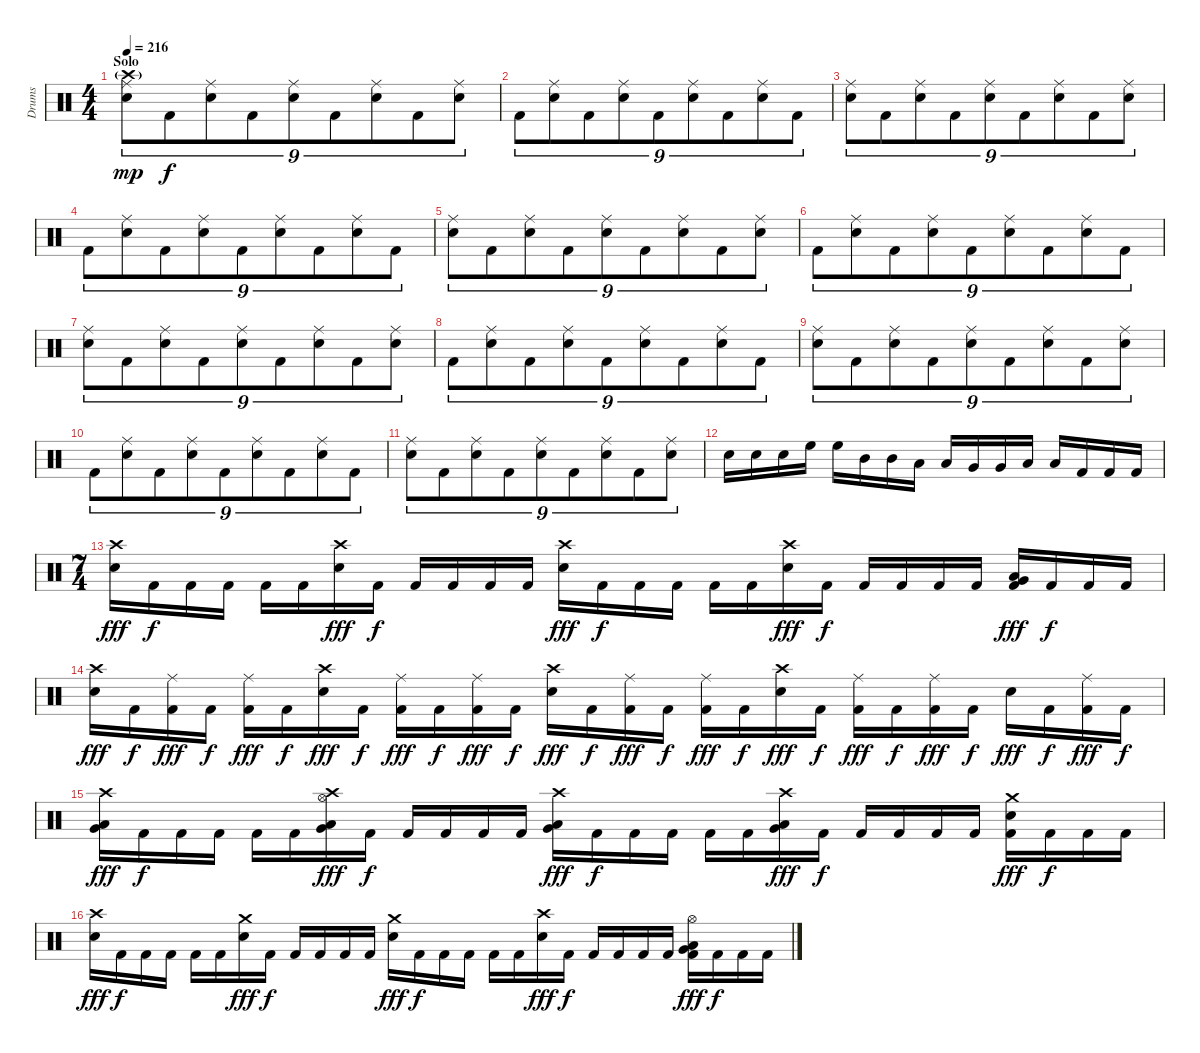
\track ("Drums" "Drums") {instrument percussion}
\staff {score}
\articulation defaults
\ts (4 4)
\section ("" "Solo")
\tempo 216
\clef neutral
\ks c
("Crash high (hit)"{g} "Ride (middle)" "Snare (hit) 2").8{tu (9 8) dy mp} "Kick (hit) 2".8{tu (9 8) dy f} ("Ride (middle)" "Snare (hit) 2").8{tu (9 8)} "Kick (hit) 2".8{tu (9 8)} ("Ride (middle)" "Snare (hit) 2").8{tu (9 8)} "Kick (hit) 2".8{tu (9 8)} ("Ride (middle)" "Snare (hit) 2").8{tu (9 8)} "Kick (hit) 2".8{tu (9 8)} ("Ride (middle)" "Snare (hit) 2").8{tu (9 8)} |
"Kick (hit) 2".8{tu (9 8)} ("Ride (middle)" "Snare (hit) 2").8{tu (9 8)} "Kick (hit) 2".8{tu (9 8)} ("Ride (middle)" "Snare (hit) 2").8{tu (9 8)} "Kick (hit) 2".8{tu (9 8)} ("Ride (middle)" "Snare (hit) 2").8{tu (9 8)} "Kick (hit) 2".8{tu (9 8)} ("Ride (middle)" "Snare (hit) 2").8{tu (9 8)} "Kick (hit) 2".8{tu (9 8)} |
("Ride (middle)" "Snare (hit) 2").8{tu (9 8)} "Kick (hit) 2".8{tu (9 8)} ("Ride (middle)" "Snare (hit) 2").8{tu (9 8)} "Kick (hit) 2".8{tu (9 8)} ("Ride (middle)" "Snare (hit) 2").8{tu (9 8)} "Kick (hit) 2".8{tu (9 8)} ("Ride (middle)" "Snare (hit) 2").8{tu (9 8)} "Kick (hit) 2".8{tu (9 8)} ("Ride (middle)" "Snare (hit) 2").8{tu (9 8)} |
"Kick (hit) 2".8{tu (9 8)} ("Ride (middle)" "Snare (hit) 2").8{tu (9 8)} "Kick (hit) 2".8{tu (9 8)} ("Ride (middle)" "Snare (hit) 2").8{tu (9 8)} "Kick (hit) 2".8{tu (9 8)} ("Ride (middle)" "Snare (hit) 2").8{tu (9 8)} "Kick (hit) 2".8{tu (9 8)} ("Ride (middle)" "Snare (hit) 2").8{tu (9 8)} "Kick (hit) 2".8{tu (9 8)} |
("Ride (middle)" "Snare (hit) 2").8{tu (9 8)} "Kick (hit) 2".8{tu (9 8)} ("Ride (middle)" "Snare (hit) 2").8{tu (9 8)} "Kick (hit) 2".8{tu (9 8)} ("Ride (middle)" "Snare (hit) 2").8{tu (9 8)} "Kick (hit) 2".8{tu (9 8)} ("Ride (middle)" "Snare (hit) 2").8{tu (9 8)} "Kick (hit) 2".8{tu (9 8)} ("Ride (middle)" "Snare (hit) 2").8{tu (9 8)} |
"Kick (hit) 2".8{tu (9 8)} ("Ride (middle)" "Snare (hit) 2").8{tu (9 8)} "Kick (hit) 2".8{tu (9 8)} ("Ride (middle)" "Snare (hit) 2").8{tu (9 8)} "Kick (hit) 2".8{tu (9 8)} ("Ride (middle)" "Snare (hit) 2").8{tu (9 8)} "Kick (hit) 2".8{tu (9 8)} ("Ride (middle)" "Snare (hit) 2").8{tu (9 8)} "Kick (hit) 2".8{tu (9 8)} |
("Ride (middle)" "Snare (hit) 2").8{tu (9 8)} "Kick (hit) 2".8{tu (9 8)} ("Ride (middle)" "Snare (hit) 2").8{tu (9 8)} "Kick (hit) 2".8{tu (9 8)} ("Ride (middle)" "Snare (hit) 2").8{tu (9 8)} "Kick (hit) 2".8{tu (9 8)} ("Ride (middle)" "Snare (hit) 2").8{tu (9 8)} "Kick (hit) 2".8{tu (9 8)} ("Ride (middle)" "Snare (hit) 2").8{tu (9 8)} |
"Kick (hit) 2".8{tu (9 8)} ("Ride (middle)" "Snare (hit) 2").8{tu (9 8)} "Kick (hit) 2".8{tu (9 8)} ("Ride (middle)" "Snare (hit) 2").8{tu (9 8)} "Kick (hit) 2".8{tu (9 8)} ("Ride (middle)" "Snare (hit) 2").8{tu (9 8)} "Kick (hit) 2".8{tu (9 8)} ("Ride (middle)" "Snare (hit) 2").8{tu (9 8)} "Kick (hit) 2".8{tu (9 8)} |
("Ride (middle)" "Snare (hit) 2").8{tu (9 8)} "Kick (hit) 2".8{tu (9 8)} ("Ride (middle)" "Snare (hit) 2").8{tu (9 8)} "Kick (hit) 2".8{tu (9 8)} ("Ride (middle)" "Snare (hit) 2").8{tu (9 8)} "Kick (hit) 2".8{tu (9 8)} ("Ride (middle)" "Snare (hit) 2").8{tu (9 8)} "Kick (hit) 2".8{tu (9 8)} ("Ride (middle)" "Snare (hit) 2").8{tu (9 8)} |
"Kick (hit) 2".8{tu (9 8)} ("Ride (middle)" "Snare (hit) 2").8{tu (9 8)} "Kick (hit) 2".8{tu (9 8)} ("Ride (middle)" "Snare (hit) 2").8{tu (9 8)} "Kick (hit) 2".8{tu (9 8)} ("Ride (middle)" "Snare (hit) 2").8{tu (9 8)} "Kick (hit) 2".8{tu (9 8)} ("Ride (middle)" "Snare (hit) 2").8{tu (9 8)} "Kick (hit) 2".8{tu (9 8)} |
("Ride (middle)" "Snare (hit) 2").8{tu (9 8)} "Kick (hit) 2".8{tu (9 8)} ("Ride (middle)" "Snare (hit) 2").8{tu (9 8)} "Kick (hit) 2".8{tu (9 8)} ("Ride (middle)" "Snare (hit) 2").8{tu (9 8)} "Kick (hit) 2".8{tu (9 8)} ("Ride (middle)" "Snare (hit) 2").8{tu (9 8)} "Kick (hit) 2".8{tu (9 8)} ("Ride (middle)" "Snare (hit) 2").8{tu (9 8)} |
"Snare (hit) 2".16 "Snare (hit) 2".16 "Snare (hit) 2".16 "High Floor Tom (hit)".16 "High Floor Tom (hit)".16 "Mid Tom (hit)".16 "Mid Tom (hit)".16 "Low Tom (hit)".16 "Low Tom (hit)".16 "Very Low Tom (hit)".16 "Very Low Tom (hit)".16 "Low Floor Tom (hit)".16 "Low Floor Tom (hit)".16 "Kick (hit) 2".16 "Kick (hit) 2".16 "Kick (hit) 2".16 |
\ts (7 4)
("Crash high (hit)" "Snare (hit) 2").16{dy fff} "Kick (hit) 2".16{dy f} "Kick (hit) 2".16 "Kick (hit) 2".16 "Kick (hit) 2".16 "Kick (hit) 2".16 ("Crash high (hit)" "Snare (hit) 2").16{dy fff} "Kick (hit) 2".16{dy f} "Kick (hit) 2".16 "Kick (hit) 2".16 "Kick (hit) 2".16 "Kick (hit) 2".16 ("Crash high (hit)" "Snare (hit) 2").16{dy fff} "Kick (hit) 2".16{dy f} "Kick (hit) 2".16 "Kick (hit) 2".16 "Kick (hit) 2".16 "Kick (hit) 2".16 ("Crash high (hit)" "Snare (hit) 2").16{dy fff} "Kick (hit) 2".16{dy f} "Kick (hit) 2".16 "Kick (hit) 2".16 "Kick (hit) 2".16 "Kick (hit) 2".16 ("Very Low Tom (hit)" "Low Floor Tom (hit)" "Kick (hit) 2").16{dy fff} "Kick (hit) 2".16{dy f} "Kick (hit) 2".16 "Kick (hit) 2".16 |
("Crash high (hit)" "Snare (hit) 2").16{dy fff} "Kick (hit) 2".16{dy f} ("Ride (middle)" "Kick (hit) 2").16{dy fff} "Kick (hit) 2".16{dy f} ("Ride (middle)" "Kick (hit) 2").16{dy fff} "Kick (hit) 2".16{dy f} ("Crash high (hit)" "Snare (hit) 2").16{dy fff} "Kick (hit) 2".16{dy f} ("Ride (middle)" "Kick (hit) 2").16{dy fff} "Kick (hit) 2".16{dy f} ("Ride (middle)" "Kick (hit) 2").16{dy fff} "Kick (hit) 2".16{dy f} ("Crash high (hit)" "Snare (hit) 2").16{dy fff} "Kick (hit) 2".16{dy f} ("Ride (middle)" "Kick (hit) 2").16{dy fff} "Kick (hit) 2".16{dy f} ("Ride (middle)" "Kick (hit) 2").16{dy fff} "Kick (hit) 2".16{dy f} ("Crash high (hit)" "Snare (hit) 2").16{dy fff} "Kick (hit) 2".16{dy f} ("Ride (middle)" "Kick (hit) 2").16{dy fff} "Kick (hit) 2".16{dy f} ("Ride (middle)" "Kick (hit) 2").16{dy fff} "Kick (hit) 2".16{dy f} "Snare (hit) 2".16{dy fff} "Kick (hit) 2".16{dy f} ("Ride (middle)" "Kick (hit) 2").16{dy fff} "Kick (hit) 2".16{dy f} |
("Crash high (hit)" "Low Floor Tom (hit)" "Very Low Tom (hit)").16{dy fff} "Kick (hit) 2".16{dy f} "Kick (hit) 2".16 "Kick (hit) 2".16 "Kick (hit) 2".16 "Kick (hit) 2".16 ("Crash high (hit)" "Hi-Hat (open)" "Very Low Tom (hit)" "Low Floor Tom (hit)").16{dy fff} "Kick (hit) 2".16{dy f} "Kick (hit) 2".16 "Kick (hit) 2".16 "Kick (hit) 2".16 "Kick (hit) 2".16 ("Crash high (hit)" "Very Low Tom (hit)" "Low Floor Tom (hit)").16{dy fff} "Kick (hit) 2".16{dy f} "Kick (hit) 2".16 "Kick (hit) 2".16 "Kick (hit) 2".16 "Kick (hit) 2".16 ("Crash high (hit)" "Very Low Tom (hit)" "Low Floor Tom (hit)").16{dy fff} "Kick (hit) 2".16{dy f} "Kick (hit) 2".16 "Kick (hit) 2".16 "Kick (hit) 2".16 "Kick (hit) 2".16 ("Crash medium (hit)" "Snare (hit) 2" "Kick (hit) 2").16{dy fff} "Kick (hit) 2".16{dy f} "Kick (hit) 2".16 "Kick (hit) 2".16 |
("Crash high (hit)" "Snare (hit) 2").16{dy fff} "Kick (hit) 2".16{dy f} "Kick (hit) 2".16 "Kick (hit) 2".16 "Kick (hit) 2".16 "Kick (hit) 2".16 ("Crash medium (hit)" "Snare (hit) 2").16{dy fff} "Kick (hit) 2".16{dy f} "Kick (hit) 2".16 "Kick (hit) 2".16 "Kick (hit) 2".16 "Kick (hit) 2".16 ("Crash medium (hit)" "Snare (hit) 2").16{dy fff} "Kick (hit) 2".16{dy f} "Kick (hit) 2".16 "Kick (hit) 2".16 "Kick (hit) 2".16 "Kick (hit) 2".16 ("Crash high (hit)" "Snare (hit) 2").16{dy fff} "Kick (hit) 2".16{dy f} "Kick (hit) 2".16 "Kick (hit) 2".16 "Kick (hit) 2".16 "Kick (hit) 2".16 ("Hi-Hat (open)" "Very Low Tom (hit)" "Low Floor Tom (hit)" "Kick (hit) 2").16{dy fff} "Kick (hit) 2".16{dy f} "Kick (hit) 2".16 "Kick (hit) 2".16
